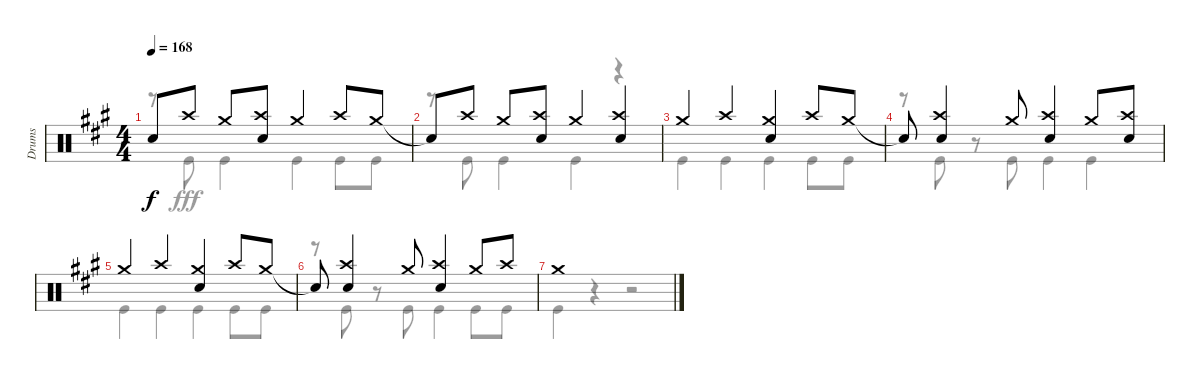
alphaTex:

\track ("Drums" "Drums") {instrument percussion}
\staff {score}
\articulation defaults
\voice
\ts (4 4)
\tempo 168
\clef neutral
\ks a "Snare (hit)"{t}.8{dy f} "Crash high (hit)".8 "Crash medium (hit)".8
("Crash high (hit)" "Snare (hit) 2").8 "Crash medium (hit)".4 "Crash high (hit)".8 "Crash medium (hit)".8 |
"Snare (hit)"{t}.8 "Crash high (hit)".8 "Crash medium (hit)".8 ("Crash high (hit)" "Snare (hit) 2").8 "Crash medium (hit)".4 ("Crash high (hit)" "Snare (hit) 2").4 |
"Crash medium (hit)".4 "Crash high (hit)".4 ("Crash medium (hit)" "Snare (hit) 2").4 "Crash high (hit)".8 "Crash medium (hit)".8 |
"Snare (hit)"{t}.8 ("Crash high (hit)" "Snare (hit) 2").4 "Crash medium (hit)".8 ("Crash high (hit)" "Snare (hit) 2").4 "Crash medium (hit)".8 ("Crash high (hit)" "Snare (hit) 2").8 |
"Crash medium (hit)".4 "Crash high (hit)".4 ("Crash medium (hit)" "Snare (hit) 2").4 "Crash high (hit)".8 "Crash medium (hit)".8 |
"Snare (hit)"{t}.8 ("Crash high (hit)" "Snare (hit) 2").4 "Crash medium (hit)".8 ("Crash high (hit)" "Snare (hit) 2").4 "Crash medium (hit)".8 "Crash high (hit)".8 |
"Crash medium (hit)".1
\voice
\clef neutral
\ottava regular
\simile none
\ks a
r.8{dy fff} "Kick (hit)".8 "Kick (hit)".4 "Kick (hit)".4 "Kick (hit)".8 "Kick (hit)".8 |
r.8 "Kick (hit)".8 "Kick (hit)".4 "Kick (hit)".4 r.4 |
"Kick (hit)".4 "Kick (hit)".4 "Kick (hit)".4 "Kick (hit)".8 "Kick (hit)".8 |
r.8 "Kick (hit)".8 r.8 "Kick (hit)".8 "Kick (hit)".4 "Kick (hit)".4 |
"Kick (hit)".4 "Kick (hit)".4 "Kick (hit)".4 "Kick (hit)".8 "Kick (hit)".8 |
r.8 "Kick (hit)".8 r.8 "Kick (hit)".8 "Kick (hit)".4 "Kick (hit)".8 "Kick (hit)".8 |
"Kick (hit)".4 r.4 r.2
